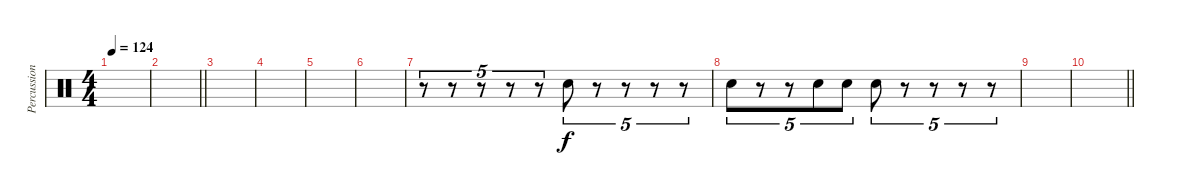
\track ("Percussion" "Percussion") {instrument percussion}
\staff {score}
\articulation defaults
\ts (4 4)
\tempo 124
\clef neutral
\ks c
|
\barLineRight lightlight
|
|
|
|
|
r.8{tu (5 4)} r.8{tu (5 4)} r.8{tu (5 4)} r.8{tu (5 4)} r.8{tu (5 4)} "Electric Snare (hit)".8{tu (5 4)} r.8{tu (5 4)} r.8{tu (5 4)} r.8{tu (5 4)} r.8{tu (5 4)} |
"Electric Snare (hit)".8{tu (5 4)} r.8{tu (5 4)} r.8{tu (5 4)} "Electric Snare (hit)".8{tu (5 4)} "Electric Snare (hit)".8{tu (5 4)} "Electric Snare (hit)".8{tu (5 4)} r.8{tu (5 4)} r.8{tu (5 4)} r.8{tu (5 4)} r.8{tu (5 4)} |
|
\barLineRight lightlight
